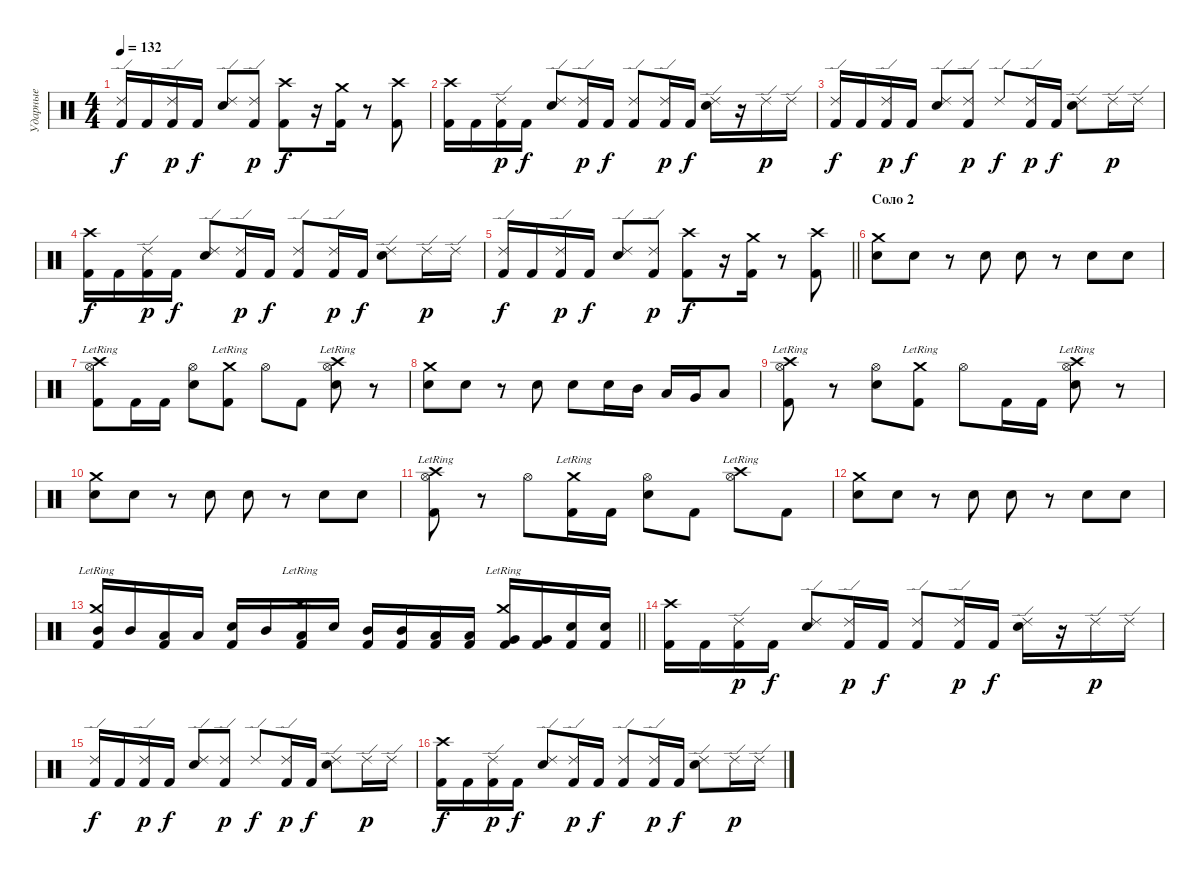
\track ("Ударные" "Ударные") {instrument percussion}
\staff {score}
\articulation defaults
\ts (4 4)
\tempo 132
\clef neutral
\ks c
("Kick (hit) 2" "Ride (edge) 2").16{dy f} "Kick (hit) 2".16 ("Kick (hit) 2" "Ride (edge) 2").16{dy p} "Kick (hit) 2".16{dy f} ("Electric Snare (hit)" "Ride (edge) 2").8 ("Kick (hit) 2" "Ride (edge) 2").8{dy p} ("Crash high (hit)" "Kick (hit) 2").8{dy f} r.16 ("Crash medium (hit)" "Kick (hit) 2").16 r.8 ("Crash high (hit)" "Kick (hit) 2").8 |
("Crash high (hit)" "Kick (hit) 2").16 "Kick (hit) 2".16 ("Kick (hit) 2" "Ride (edge) 2").16{dy p} "Kick (hit) 2".16{dy f} ("Electric Snare (hit)" "Ride (edge) 2").8 ("Kick (hit) 2" "Ride (edge) 2").16{dy p} "Kick (hit) 2".16{dy f} ("Kick (hit) 2" "Ride (edge) 2").8 ("Kick (hit) 2" "Ride (edge) 2").16{dy p} "Kick (hit) 2".16{dy f} ("Electric Snare (hit)" "Ride (edge) 2").16 r.16 "Ride (edge) 2".16{dy p} "Ride (edge) 2".16 |
("Kick (hit) 2" "Ride (edge) 2").16{dy f} "Kick (hit) 2".16 ("Kick (hit) 2" "Ride (edge) 2").16{dy p} "Kick (hit) 2".16{dy f} ("Electric Snare (hit)" "Ride (edge) 2").8 ("Kick (hit) 2" "Ride (edge) 2").8{dy p} "Ride (edge) 2".8{dy f} ("Kick (hit) 2" "Ride (edge) 2").16{dy p} "Kick (hit) 2".16{dy f} ("Electric Snare (hit)" "Ride (edge) 2").8 "Ride (edge) 2".16{dy p} "Ride (edge) 2".16 |
("Crash high (hit)" "Kick (hit) 2").16{dy f} "Kick (hit) 2".16 ("Kick (hit) 2" "Ride (edge) 2").16{dy p} "Kick (hit) 2".16{dy f} ("Electric Snare (hit)" "Ride (edge) 2").8 ("Kick (hit) 2" "Ride (edge) 2").16{dy p} "Kick (hit) 2".16{dy f} ("Kick (hit) 2" "Ride (edge) 2").8 ("Kick (hit) 2" "Ride (edge) 2").16{dy p} "Kick (hit) 2".16{dy f} ("Electric Snare (hit)" "Ride (edge) 2").8 "Ride (edge) 2".16{dy p} "Ride (edge) 2".16 |
\barLineRight lightlight
("Kick (hit) 2" "Ride (edge) 2").16{dy f} "Kick (hit) 2".16 ("Kick (hit) 2" "Ride (edge) 2").16{dy p} "Kick (hit) 2".16{dy f} ("Electric Snare (hit)" "Ride (edge) 2").8 ("Kick (hit) 2" "Ride (edge) 2").8{dy p} ("Crash high (hit)" "Kick (hit) 2").8{dy f} r.16 ("Crash medium (hit)" "Kick (hit) 2").16 r.8 ("Crash high (hit)" "Kick (hit) 2").8 |
\section ("" "Соло 2")
("Crash medium (hit)" "Electric Snare (hit)").8 "Electric Snare (hit)".8 r.8 "Electric Snare (hit)".8 "Electric Snare (hit)".8 r.8 "Electric Snare (hit)".8 "Electric Snare (hit)".8 |
("Crash high (hit)"{lr} "Kick (hit) 2" "Hi-Hat (open)").8 "Kick (hit) 2".16 "Kick (hit) 2".16 ("Electric Snare (hit)" "Hi-Hat (open)").8 ("Crash medium (hit)"{lr} "Kick (hit) 2").8 "Hi-Hat (open)".8 "Kick (hit) 2".8 ("Crash high (hit)"{lr} "Electric Snare (hit)" "Hi-Hat (open)").8 r.8 |
("Crash medium (hit)" "Electric Snare (hit)").8 "Electric Snare (hit)".8 r.8 "Electric Snare (hit)".8 "Electric Snare (hit)".8 "Electric Snare (hit)".16 "Mid Tom (hit)".16 "Low Tom (hit)".16 "Very Low Tom (hit)".16 "Low Floor Tom (hit)".8 |
("Crash high (hit)"{lr} "Kick (hit) 2" "Hi-Hat (open)").8 r.8 ("Electric Snare (hit)" "Hi-Hat (open)").8 ("Crash medium (hit)"{lr} "Kick (hit) 2").8 "Hi-Hat (open)".8 "Kick (hit) 2".16 "Kick (hit) 2".16 ("Crash high (hit)"{lr} "Electric Snare (hit)" "Hi-Hat (open)").8 r.8 |
("Crash medium (hit)" "Electric Snare (hit)").8 "Electric Snare (hit)".8 r.8 "Electric Snare (hit)".8 "Electric Snare (hit)".8 r.8 "Electric Snare (hit)".8 "Electric Snare (hit)".8 |
("Crash high (hit)"{lr} "Kick (hit) 2" "Hi-Hat (open)").8 r.8 "Hi-Hat (open)".8 ("Crash medium (hit)"{lr} "Kick (hit) 2").16 "Kick (hit) 2".16 ("Electric Snare (hit)" "Hi-Hat (open)").8 "Kick (hit) 2".8 ("Crash high (hit)"{lr} "Hi-Hat (open)").8 "Kick (hit) 2".8 |
("Crash medium (hit)" "Electric Snare (hit)").8 "Electric Snare (hit)".8 r.8 "Electric Snare (hit)".8 "Electric Snare (hit)".8 r.8 "Electric Snare (hit)".8 "Electric Snare (hit)".8 |
\barLineRight lightlight
("Crash medium (hit)"{lr} "Mid Tom (hit)" "Kick (hit) 2").16 "Mid Tom (hit)".16 ("Low Tom (hit)" "Kick (hit) 2").16 "Low Tom (hit)".16 ("Electric Snare (hit)" "Kick (hit) 2").16 "Mid Tom (hit)".16 ("Crash high (hit)"{lr} "Low Tom (hit)" "Kick (hit) 2").16 "Electric Snare (hit)".16 ("Mid Tom (hit)" "Kick (hit) 2").16 ("Mid Tom (hit)" "Kick (hit) 2").16 ("Low Tom (hit)" "Kick (hit) 2").16 ("Low Tom (hit)" "Kick (hit) 2").16 ("Crash medium (hit)"{lr} "Very Low Tom (hit)" "Kick (hit) 2").16 ("Very Low Tom (hit)" "Kick (hit) 2").16 ("Electric Snare (hit)" "Kick (hit) 2").16 ("Electric Snare (hit)" "Kick (hit) 2").16 |
("Crash high (hit)" "Kick (hit) 2").16 "Kick (hit) 2".16 ("Kick (hit) 2" "Ride (edge) 2").16{dy p} "Kick (hit) 2".16{dy f} ("Electric Snare (hit)" "Ride (edge) 2").8 ("Kick (hit) 2" "Ride (edge) 2").16{dy p} "Kick (hit) 2".16{dy f} ("Kick (hit) 2" "Ride (edge) 2").8 ("Kick (hit) 2" "Ride (edge) 2").16{dy p} "Kick (hit) 2".16{dy f} ("Electric Snare (hit)" "Ride (edge) 2").16 r.16 "Ride (edge) 2".16{dy p} "Ride (edge) 2".16 |
("Kick (hit) 2" "Ride (edge) 2").16{dy f} "Kick (hit) 2".16 ("Kick (hit) 2" "Ride (edge) 2").16{dy p} "Kick (hit) 2".16{dy f} ("Electric Snare (hit)" "Ride (edge) 2").8 ("Kick (hit) 2" "Ride (edge) 2").8{dy p} "Ride (edge) 2".8{dy f} ("Kick (hit) 2" "Ride (edge) 2").16{dy p} "Kick (hit) 2".16{dy f} ("Electric Snare (hit)" "Ride (edge) 2").8 "Ride (edge) 2".16{dy p} "Ride (edge) 2".16 |
("Crash high (hit)" "Kick (hit) 2").16{dy f} "Kick (hit) 2".16 ("Kick (hit) 2" "Ride (edge) 2").16{dy p} "Kick (hit) 2".16{dy f} ("Electric Snare (hit)" "Ride (edge) 2").8 ("Kick (hit) 2" "Ride (edge) 2").16{dy p} "Kick (hit) 2".16{dy f} ("Kick (hit) 2" "Ride (edge) 2").8 ("Kick (hit) 2" "Ride (edge) 2").16{dy p} "Kick (hit) 2".16{dy f} ("Electric Snare (hit)" "Ride (edge) 2").8 "Ride (edge) 2".16{dy p} "Ride (edge) 2".16
